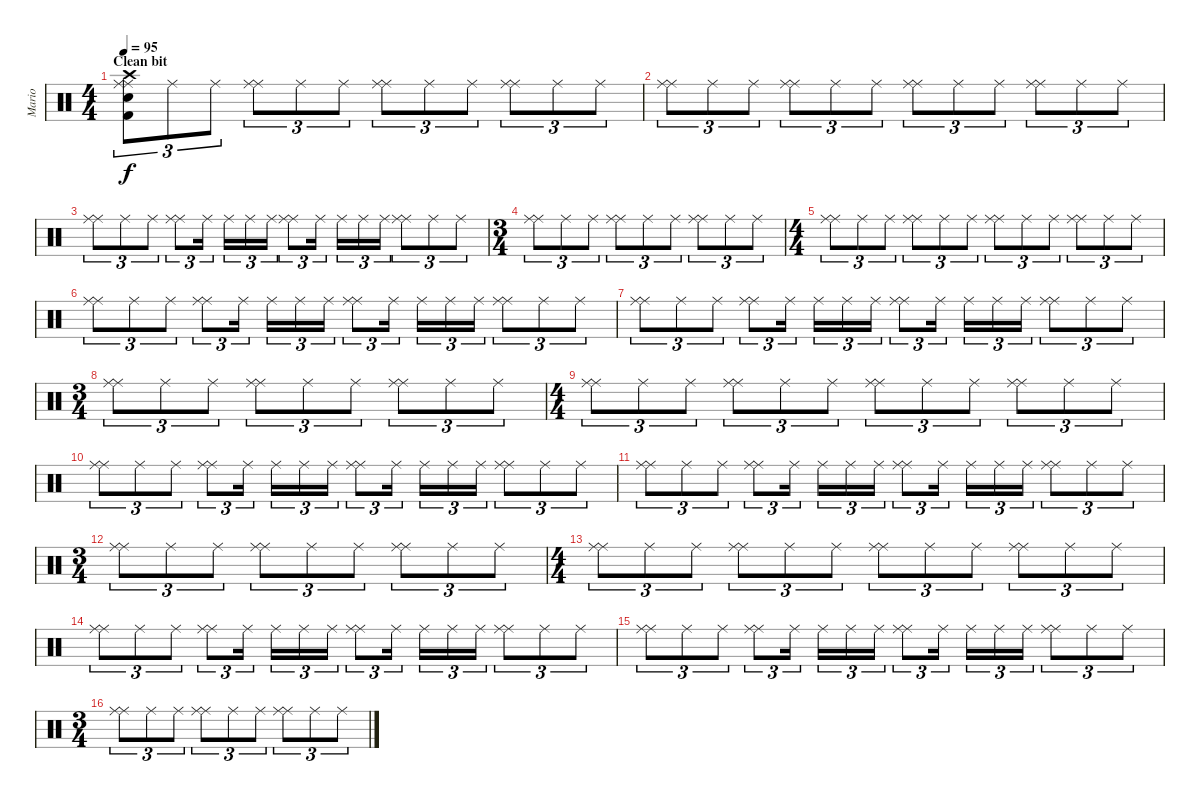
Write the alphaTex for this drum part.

\track ("Mario" "Mario") {instrument percussion}
\staff {score}
\articulation defaults
\ts (4 4)
\section ("" "Clean bit")
\tempo 95
\clef neutral
\ks c
("Crash high (hit)" "Ride (middle)" "Ride (middle)" "Electric Snare (hit)" "Kick (hit) 2").8{tu (3 2) dy f} "Ride (middle)".8{tu (3 2)} "Ride (middle)".8{tu (3 2)} ("Ride (middle)" "Ride (middle)").8{tu (3 2)} "Ride (middle)".8{tu (3 2)} "Ride (middle)".8{tu (3 2)} ("Ride (middle)" "Ride (middle)").8{tu (3 2)} "Ride (middle)".8{tu (3 2)} "Ride (middle)".8{tu (3 2)} ("Ride (middle)" "Ride (middle)").8{tu (3 2)} "Ride (middle)".8{tu (3 2)} "Ride (middle)".8{tu (3 2)} |
("Ride (middle)" "Ride (middle)").8{tu (3 2)} "Ride (middle)".8{tu (3 2)} "Ride (middle)".8{tu (3 2)} ("Ride (middle)" "Ride (middle)").8{tu (3 2)} "Ride (middle)".8{tu (3 2)} "Ride (middle)".8{tu (3 2)} ("Ride (middle)" "Ride (middle)").8{tu (3 2)} "Ride (middle)".8{tu (3 2)} "Ride (middle)".8{tu (3 2)} ("Ride (middle)" "Ride (middle)").8{tu (3 2)} "Ride (middle)".8{tu (3 2)} "Ride (middle)".8{tu (3 2)} |
("Ride (middle)" "Ride (middle)").8{tu (3 2)} "Ride (middle)".8{tu (3 2)} "Ride (middle)".8{tu (3 2)} ("Ride (middle)" "Ride (middle)").8{tu (3 2)} "Ride (middle)".16{tu (3 2) beam splitsecondary} "Ride (middle)".16{tu (3 2)} "Ride (middle)".16{tu (3 2)} "Ride (middle)".16{tu (3 2)} ("Ride (middle)" "Ride (middle)").8{tu (3 2)} "Ride (middle)".16{tu (3 2) beam splitsecondary} "Ride (middle)".16{tu (3 2)} "Ride (middle)".16{tu (3 2)} "Ride (middle)".16{tu (3 2)} ("Ride (middle)" "Ride (middle)").8{tu (3 2)} "Ride (middle)".8{tu (3 2)} "Ride (middle)".8{tu (3 2)} |
\ts (3 4)
("Ride (middle)" "Ride (middle)").8{tu (3 2)} "Ride (middle)".8{tu (3 2)} "Ride (middle)".8{tu (3 2)} ("Ride (middle)" "Ride (middle)").8{tu (3 2)} "Ride (middle)".8{tu (3 2)} "Ride (middle)".8{tu (3 2)} ("Ride (middle)" "Ride (middle)").8{tu (3 2)} "Ride (middle)".8{tu (3 2)} "Ride (middle)".8{tu (3 2)} |
\ts (4 4)
("Ride (middle)" "Ride (middle)").8{tu (3 2)} "Ride (middle)".8{tu (3 2)} "Ride (middle)".8{tu (3 2)} ("Ride (middle)" "Ride (middle)").8{tu (3 2)} "Ride (middle)".8{tu (3 2)} "Ride (middle)".8{tu (3 2)} ("Ride (middle)" "Ride (middle)").8{tu (3 2)} "Ride (middle)".8{tu (3 2)} "Ride (middle)".8{tu (3 2)} ("Ride (middle)" "Ride (middle)").8{tu (3 2)} "Ride (middle)".8{tu (3 2)} "Ride (middle)".8{tu (3 2)} |
("Ride (middle)" "Ride (middle)").8{tu (3 2)} "Ride (middle)".8{tu (3 2)} "Ride (middle)".8{tu (3 2)} ("Ride (middle)" "Ride (middle)").8{tu (3 2)} "Ride (middle)".16{tu (3 2) beam splitsecondary} "Ride (middle)".16{tu (3 2)} "Ride (middle)".16{tu (3 2)} "Ride (middle)".16{tu (3 2)} ("Ride (middle)" "Ride (middle)").8{tu (3 2)} "Ride (middle)".16{tu (3 2) beam splitsecondary} "Ride (middle)".16{tu (3 2)} "Ride (middle)".16{tu (3 2)} "Ride (middle)".16{tu (3 2)} ("Ride (middle)" "Ride (middle)").8{tu (3 2)} "Ride (middle)".8{tu (3 2)} "Ride (middle)".8{tu (3 2)} |
("Ride (middle)" "Ride (middle)").8{tu (3 2)} "Ride (middle)".8{tu (3 2)} "Ride (middle)".8{tu (3 2)} ("Ride (middle)" "Ride (middle)").8{tu (3 2)} "Ride (middle)".16{tu (3 2) beam splitsecondary} "Ride (middle)".16{tu (3 2)} "Ride (middle)".16{tu (3 2)} "Ride (middle)".16{tu (3 2)} ("Ride (middle)" "Ride (middle)").8{tu (3 2)} "Ride (middle)".16{tu (3 2) beam splitsecondary} "Ride (middle)".16{tu (3 2)} "Ride (middle)".16{tu (3 2)} "Ride (middle)".16{tu (3 2)} ("Ride (middle)" "Ride (middle)").8{tu (3 2)} "Ride (middle)".8{tu (3 2)} "Ride (middle)".8{tu (3 2)} |
\ts (3 4)
("Ride (middle)" "Ride (middle)").8{tu (3 2)} "Ride (middle)".8{tu (3 2)} "Ride (middle)".8{tu (3 2)} ("Ride (middle)" "Ride (middle)").8{tu (3 2)} "Ride (middle)".8{tu (3 2)} "Ride (middle)".8{tu (3 2)} ("Ride (middle)" "Ride (middle)").8{tu (3 2)} "Ride (middle)".8{tu (3 2)} "Ride (middle)".8{tu (3 2)} |
\ts (4 4)
("Ride (middle)" "Ride (middle)").8{tu (3 2)} "Ride (middle)".8{tu (3 2)} "Ride (middle)".8{tu (3 2)} ("Ride (middle)" "Ride (middle)").8{tu (3 2)} "Ride (middle)".8{tu (3 2)} "Ride (middle)".8{tu (3 2)} ("Ride (middle)" "Ride (middle)").8{tu (3 2)} "Ride (middle)".8{tu (3 2)} "Ride (middle)".8{tu (3 2)} ("Ride (middle)" "Ride (middle)").8{tu (3 2)} "Ride (middle)".8{tu (3 2)} "Ride (middle)".8{tu (3 2)} |
("Ride (middle)" "Ride (middle)").8{tu (3 2)} "Ride (middle)".8{tu (3 2)} "Ride (middle)".8{tu (3 2)} ("Ride (middle)" "Ride (middle)").8{tu (3 2)} "Ride (middle)".16{tu (3 2) beam splitsecondary} "Ride (middle)".16{tu (3 2)} "Ride (middle)".16{tu (3 2)} "Ride (middle)".16{tu (3 2)} ("Ride (middle)" "Ride (middle)").8{tu (3 2)} "Ride (middle)".16{tu (3 2) beam splitsecondary} "Ride (middle)".16{tu (3 2)} "Ride (middle)".16{tu (3 2)} "Ride (middle)".16{tu (3 2)} ("Ride (middle)" "Ride (middle)").8{tu (3 2)} "Ride (middle)".8{tu (3 2)} "Ride (middle)".8{tu (3 2)} |
("Ride (middle)" "Ride (middle)").8{tu (3 2)} "Ride (middle)".8{tu (3 2)} "Ride (middle)".8{tu (3 2)} ("Ride (middle)" "Ride (middle)").8{tu (3 2)} "Ride (middle)".16{tu (3 2) beam splitsecondary} "Ride (middle)".16{tu (3 2)} "Ride (middle)".16{tu (3 2)} "Ride (middle)".16{tu (3 2)} ("Ride (middle)" "Ride (middle)").8{tu (3 2)} "Ride (middle)".16{tu (3 2) beam splitsecondary} "Ride (middle)".16{tu (3 2)} "Ride (middle)".16{tu (3 2)} "Ride (middle)".16{tu (3 2)} ("Ride (middle)" "Ride (middle)").8{tu (3 2)} "Ride (middle)".8{tu (3 2)} "Ride (middle)".8{tu (3 2)} |
\ts (3 4)
("Ride (middle)" "Ride (middle)").8{tu (3 2)} "Ride (middle)".8{tu (3 2)} "Ride (middle)".8{tu (3 2)} ("Ride (middle)" "Ride (middle)").8{tu (3 2)} "Ride (middle)".8{tu (3 2)} "Ride (middle)".8{tu (3 2)} ("Ride (middle)" "Ride (middle)").8{tu (3 2)} "Ride (middle)".8{tu (3 2)} "Ride (middle)".8{tu (3 2)} |
\ts (4 4)
("Ride (middle)" "Ride (middle)").8{tu (3 2)} "Ride (middle)".8{tu (3 2)} "Ride (middle)".8{tu (3 2)} ("Ride (middle)" "Ride (middle)").8{tu (3 2)} "Ride (middle)".8{tu (3 2)} "Ride (middle)".8{tu (3 2)} ("Ride (middle)" "Ride (middle)").8{tu (3 2)} "Ride (middle)".8{tu (3 2)} "Ride (middle)".8{tu (3 2)} ("Ride (middle)" "Ride (middle)").8{tu (3 2)} "Ride (middle)".8{tu (3 2)} "Ride (middle)".8{tu (3 2)} |
("Ride (middle)" "Ride (middle)").8{tu (3 2)} "Ride (middle)".8{tu (3 2)} "Ride (middle)".8{tu (3 2)} ("Ride (middle)" "Ride (middle)").8{tu (3 2)} "Ride (middle)".16{tu (3 2) beam splitsecondary} "Ride (middle)".16{tu (3 2)} "Ride (middle)".16{tu (3 2)} "Ride (middle)".16{tu (3 2)} ("Ride (middle)" "Ride (middle)").8{tu (3 2)} "Ride (middle)".16{tu (3 2) beam splitsecondary} "Ride (middle)".16{tu (3 2)} "Ride (middle)".16{tu (3 2)} "Ride (middle)".16{tu (3 2)} ("Ride (middle)" "Ride (middle)").8{tu (3 2)} "Ride (middle)".8{tu (3 2)} "Ride (middle)".8{tu (3 2)} |
("Ride (middle)" "Ride (middle)").8{tu (3 2)} "Ride (middle)".8{tu (3 2)} "Ride (middle)".8{tu (3 2)} ("Ride (middle)" "Ride (middle)").8{tu (3 2)} "Ride (middle)".16{tu (3 2) beam splitsecondary} "Ride (middle)".16{tu (3 2)} "Ride (middle)".16{tu (3 2)} "Ride (middle)".16{tu (3 2)} ("Ride (middle)" "Ride (middle)").8{tu (3 2)} "Ride (middle)".16{tu (3 2) beam splitsecondary} "Ride (middle)".16{tu (3 2)} "Ride (middle)".16{tu (3 2)} "Ride (middle)".16{tu (3 2)} ("Ride (middle)" "Ride (middle)").8{tu (3 2)} "Ride (middle)".8{tu (3 2)} "Ride (middle)".8{tu (3 2)} |
\ts (3 4)
("Ride (middle)" "Ride (middle)").8{tu (3 2)} "Ride (middle)".8{tu (3 2)} "Ride (middle)".8{tu (3 2)} ("Ride (middle)" "Ride (middle)").8{tu (3 2)} "Ride (middle)".8{tu (3 2)} "Ride (middle)".8{tu (3 2)} ("Ride (middle)" "Ride (middle)").8{tu (3 2)} "Ride (middle)".8{tu (3 2)} "Ride (middle)".8{tu (3 2)}
